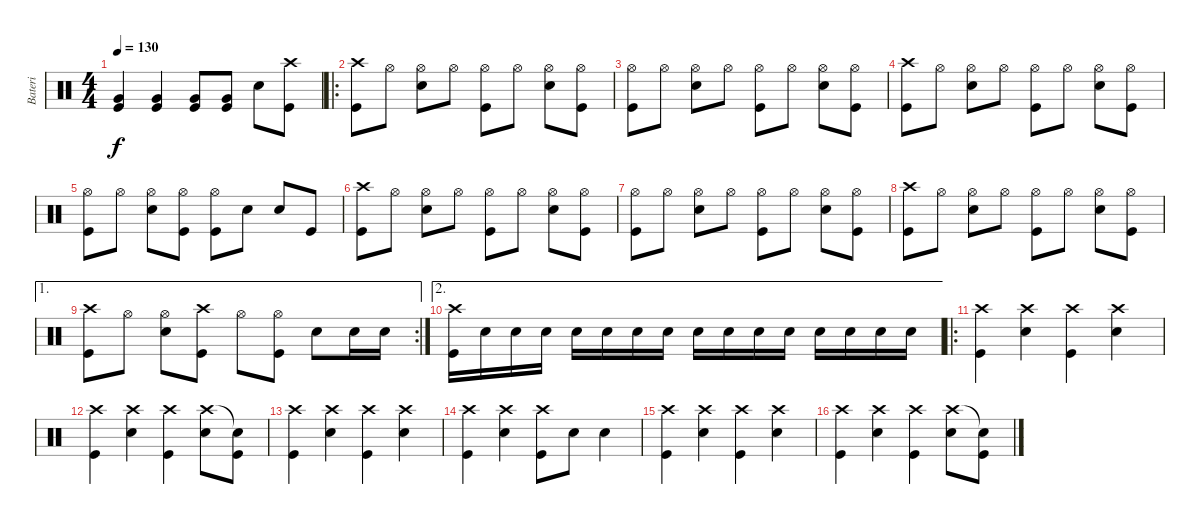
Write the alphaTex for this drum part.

\track ("Bateri" "Bateri") {instrument percussion}
\staff {score}
\articulation defaults
\ts (4 4)
\tempo 130
\clef neutral
\ks c
("Kick (hit)" "Very Low Tom (hit)").4{dy f} ("Kick (hit)" "Very Low Tom (hit)").4 ("Kick (hit)" "Very Low Tom (hit)").8 ("Kick (hit)" "Very Low Tom (hit)").8 "Electric Snare (hit)".8 ("Kick (hit)" "Crash high (hit)").8 |
\ro
("Crash high (hit)" "Kick (hit)").8 "Hi-Hat (open)".8 ("Hi-Hat (open)" "Electric Snare (hit)").8 "Hi-Hat (open)".8 ("Hi-Hat (open)" "Kick (hit)").8 "Hi-Hat (open)".8 ("Hi-Hat (open)" "Electric Snare (hit)").8 ("Hi-Hat (open)" "Kick (hit)").8 |
("Hi-Hat (open)" "Kick (hit)").8 "Hi-Hat (open)".8 ("Hi-Hat (open)" "Electric Snare (hit)").8 "Hi-Hat (open)".8 ("Hi-Hat (open)" "Kick (hit)").8 "Hi-Hat (open)".8 ("Hi-Hat (open)" "Electric Snare (hit)").8 ("Hi-Hat (open)" "Kick (hit)").8 |
("Crash high (hit)" "Kick (hit)").8 "Hi-Hat (open)".8 ("Hi-Hat (open)" "Electric Snare (hit)").8 "Hi-Hat (open)".8 ("Hi-Hat (open)" "Kick (hit)").8 "Hi-Hat (open)".8 ("Hi-Hat (open)" "Electric Snare (hit)").8 ("Hi-Hat (open)" "Kick (hit)").8 |
("Hi-Hat (open)" "Kick (hit)").8 "Hi-Hat (open)".8 ("Hi-Hat (open)" "Electric Snare (hit)").8 ("Hi-Hat (open)" "Kick (hit)").8 ("Hi-Hat (open)" "Kick (hit)").8 "Electric Snare (hit)".8 "Electric Snare (hit)".8 "Kick (hit)".8 |
("Crash high (hit)" "Kick (hit)").8 "Hi-Hat (open)".8 ("Hi-Hat (open)" "Electric Snare (hit)").8 "Hi-Hat (open)".8 ("Hi-Hat (open)" "Kick (hit)").8 "Hi-Hat (open)".8 ("Hi-Hat (open)" "Electric Snare (hit)").8 ("Hi-Hat (open)" "Kick (hit)").8 |
("Hi-Hat (open)" "Kick (hit)").8 "Hi-Hat (open)".8 ("Hi-Hat (open)" "Electric Snare (hit)").8 "Hi-Hat (open)".8 ("Hi-Hat (open)" "Kick (hit)").8 "Hi-Hat (open)".8 ("Hi-Hat (open)" "Electric Snare (hit)").8 ("Hi-Hat (open)" "Kick (hit)").8 |
("Crash high (hit)" "Kick (hit)").8 "Hi-Hat (open)".8 ("Hi-Hat (open)" "Electric Snare (hit)").8 "Hi-Hat (open)".8 ("Hi-Hat (open)" "Kick (hit)").8 "Hi-Hat (open)".8 ("Hi-Hat (open)" "Electric Snare (hit)").8 ("Hi-Hat (open)" "Kick (hit)").8 |
\ae 1
\rc 2
("Crash high (hit)" "Kick (hit)").8 "Hi-Hat (open)".8 ("Hi-Hat (open)" "Electric Snare (hit)").8 ("Crash high (hit)" "Kick (hit)").8 "Hi-Hat (open)".8 ("Hi-Hat (open)" "Kick (hit)").8 "Electric Snare (hit)".8 "Electric Snare (hit)".16 "Electric Snare (hit)".16 |
\ae 2
("Crash high (hit)" "Kick (hit)").16 "Electric Snare (hit)".16 "Electric Snare (hit)".16 "Electric Snare (hit)".16 "Electric Snare (hit)".16 "Electric Snare (hit)".16 "Electric Snare (hit)".16 "Electric Snare (hit)".16 "Electric Snare (hit)".16 "Electric Snare (hit)".16 "Electric Snare (hit)".16 "Electric Snare (hit)".16 "Electric Snare (hit)".16 "Electric Snare (hit)".16 "Electric Snare (hit)".16 "Electric Snare (hit)".16 |
\ro
("Crash high (hit)" "Kick (hit)").4 ("Crash high (hit)" "Electric Snare (hit)").4 ("Crash high (hit)" "Kick (hit)").4 ("Crash high (hit)" "Electric Snare (hit)").4 |
("Crash high (hit)" "Kick (hit)").4 ("Crash high (hit)" "Electric Snare (hit)").4 ("Crash high (hit)" "Kick (hit)").4 ("Crash high (hit)" "Electric Snare (hit)").8 ("Snare (hit)"{t} "Kick (hit)").8 |
("Crash high (hit)" "Kick (hit)").4 ("Crash high (hit)" "Electric Snare (hit)").4 ("Crash high (hit)" "Kick (hit)").4 ("Crash high (hit)" "Electric Snare (hit)").4 |
("Crash high (hit)" "Kick (hit)").4 ("Crash high (hit)" "Electric Snare (hit)").4 ("Crash high (hit)" "Kick (hit)").8 "Electric Snare (hit)".8 "Electric Snare (hit)".4 |
("Crash high (hit)" "Kick (hit)").4 ("Crash high (hit)" "Electric Snare (hit)").4 ("Crash high (hit)" "Kick (hit)").4 ("Crash high (hit)" "Electric Snare (hit)").4 |
("Crash high (hit)" "Kick (hit)").4 ("Crash high (hit)" "Electric Snare (hit)").4 ("Crash high (hit)" "Kick (hit)").4 ("Crash high (hit)" "Electric Snare (hit)").8 ("Snare (hit)"{t} "Kick (hit)").8
